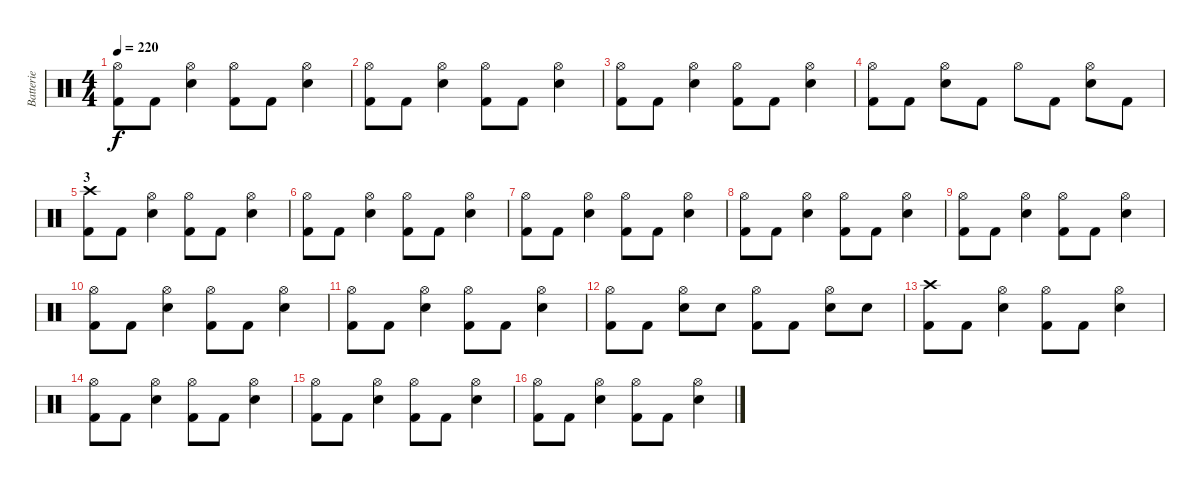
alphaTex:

\track ("Batterie" "Batterie") {instrument percussion}
\staff {score}
\articulation defaults
\ts (4 4)
\tempo 220
\clef neutral
\ks c
("Hi-Hat (open)" "Kick (hit) 2").8{dy f} "Kick (hit) 2".8 ("Hi-Hat (open)" "Electric Snare (hit)").4 ("Hi-Hat (open)" "Kick (hit) 2").8 "Kick (hit) 2".8 ("Hi-Hat (open)" "Electric Snare (hit)").4 |
("Hi-Hat (open)" "Kick (hit) 2").8 "Kick (hit) 2".8 ("Hi-Hat (open)" "Electric Snare (hit)").4 ("Hi-Hat (open)" "Kick (hit) 2").8 "Kick (hit) 2".8 ("Hi-Hat (open)" "Electric Snare (hit)").4 |
("Hi-Hat (open)" "Kick (hit) 2").8 "Kick (hit) 2".8 ("Hi-Hat (open)" "Electric Snare (hit)").4 ("Hi-Hat (open)" "Kick (hit) 2").8 "Kick (hit) 2".8 ("Hi-Hat (open)" "Electric Snare (hit)").4 |
("Hi-Hat (open)" "Kick (hit) 2").8 "Kick (hit) 2".8 ("Hi-Hat (open)" "Electric Snare (hit)").8 "Kick (hit) 2".8 "Hi-Hat (open)".8 "Kick (hit) 2".8 ("Hi-Hat (open)" "Electric Snare (hit)").8 "Kick (hit) 2".8 |
\section ("" "3")
("Crash high (hit)" "Kick (hit) 2").8 "Kick (hit) 2".8 ("Hi-Hat (open)" "Electric Snare (hit)").4 ("Hi-Hat (open)" "Kick (hit) 2").8 "Kick (hit) 2".8 ("Hi-Hat (open)" "Electric Snare (hit)").4 |
("Hi-Hat (open)" "Kick (hit) 2").8 "Kick (hit) 2".8 ("Hi-Hat (open)" "Electric Snare (hit)").4 ("Hi-Hat (open)" "Kick (hit) 2").8 "Kick (hit) 2".8 ("Hi-Hat (open)" "Electric Snare (hit)").4 |
("Hi-Hat (open)" "Kick (hit) 2").8 "Kick (hit) 2".8 ("Hi-Hat (open)" "Electric Snare (hit)").4 ("Hi-Hat (open)" "Kick (hit) 2").8 "Kick (hit) 2".8 ("Hi-Hat (open)" "Electric Snare (hit)").4 |
("Hi-Hat (open)" "Kick (hit) 2").8 "Kick (hit) 2".8 ("Hi-Hat (open)" "Electric Snare (hit)").4 ("Hi-Hat (open)" "Kick (hit) 2").8 "Kick (hit) 2".8 ("Hi-Hat (open)" "Electric Snare (hit)").4 |
("Hi-Hat (open)" "Kick (hit) 2").8 "Kick (hit) 2".8 ("Hi-Hat (open)" "Electric Snare (hit)").4 ("Hi-Hat (open)" "Kick (hit) 2").8 "Kick (hit) 2".8 ("Hi-Hat (open)" "Electric Snare (hit)").4 |
("Hi-Hat (open)" "Kick (hit) 2").8 "Kick (hit) 2".8 ("Hi-Hat (open)" "Electric Snare (hit)").4 ("Hi-Hat (open)" "Kick (hit) 2").8 "Kick (hit) 2".8 ("Hi-Hat (open)" "Electric Snare (hit)").4 |
("Hi-Hat (open)" "Kick (hit) 2").8 "Kick (hit) 2".8 ("Hi-Hat (open)" "Electric Snare (hit)").4 ("Hi-Hat (open)" "Kick (hit) 2").8 "Kick (hit) 2".8 ("Hi-Hat (open)" "Electric Snare (hit)").4 |
("Hi-Hat (open)" "Kick (hit) 2").8 "Kick (hit) 2".8 ("Hi-Hat (open)" "Electric Snare (hit)").8 "Electric Snare (hit)".8 ("Hi-Hat (open)" "Kick (hit) 2").8 "Kick (hit) 2".8 ("Hi-Hat (open)" "Electric Snare (hit)").8 "Electric Snare (hit)".8 |
("Crash high (hit)" "Kick (hit) 2").8 "Kick (hit) 2".8 ("Hi-Hat (open)" "Electric Snare (hit)").4 ("Hi-Hat (open)" "Kick (hit) 2").8 "Kick (hit) 2".8 ("Hi-Hat (open)" "Electric Snare (hit)").4 |
("Hi-Hat (open)" "Kick (hit) 2").8 "Kick (hit) 2".8 ("Hi-Hat (open)" "Electric Snare (hit)").4 ("Hi-Hat (open)" "Kick (hit) 2").8 "Kick (hit) 2".8 ("Hi-Hat (open)" "Electric Snare (hit)").4 |
("Hi-Hat (open)" "Kick (hit) 2").8 "Kick (hit) 2".8 ("Hi-Hat (open)" "Electric Snare (hit)").4 ("Hi-Hat (open)" "Kick (hit) 2").8 "Kick (hit) 2".8 ("Hi-Hat (open)" "Electric Snare (hit)").4 |
("Hi-Hat (open)" "Kick (hit) 2").8 "Kick (hit) 2".8 ("Hi-Hat (open)" "Electric Snare (hit)").4 ("Hi-Hat (open)" "Kick (hit) 2").8 "Kick (hit) 2".8 ("Hi-Hat (open)" "Electric Snare (hit)").4
